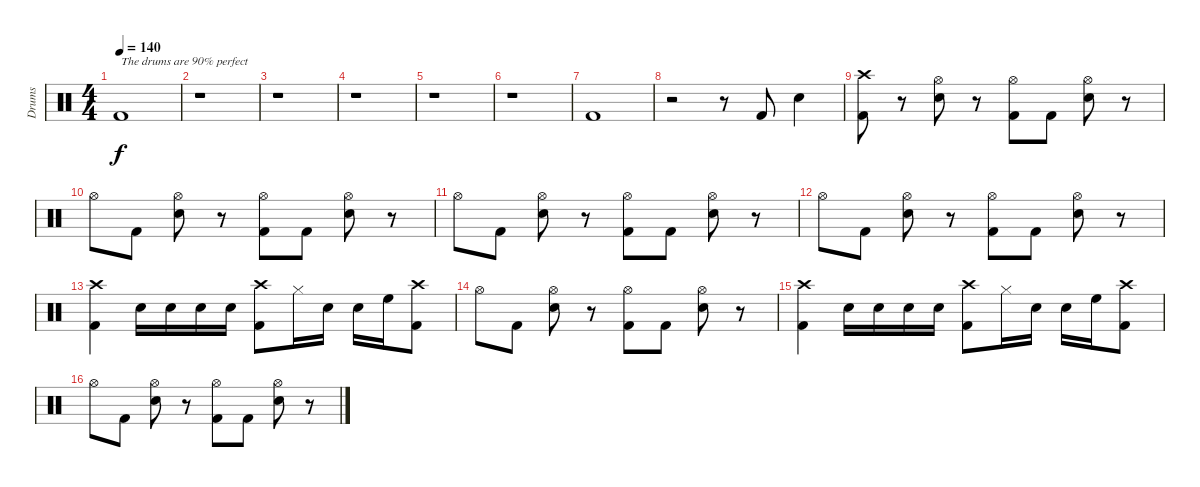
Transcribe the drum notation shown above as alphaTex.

\track ("Drums" "Drums") {instrument percussion}
\staff {score}
\articulation defaults
\ts (4 4)
\tempo 140
\clef neutral
\ks c "Kick (hit) 2".1{txt "The drums are 90% perfect" dy f}
|
r.1 |
r.1 |
r.1 |
r.1 |
r.1 |
"Kick (hit) 2".1 |
r.2 r.8 "Kick (hit) 2".8 "Electric Snare (hit)".4 |
("Crash high (hit)" "Kick (hit) 2").8 r.8 ("Hi-Hat (open)" "Electric Snare (hit)").8 r.8 ("Hi-Hat (open)" "Kick (hit) 2").8 "Kick (hit) 2".8 ("Hi-Hat (open)" "Electric Snare (hit)").8 r.8 |
"Hi-Hat (open)".8 "Kick (hit) 2".8 ("Hi-Hat (open)" "Electric Snare (hit)").8 r.8 ("Hi-Hat (open)" "Kick (hit) 2").8 "Kick (hit) 2".8 ("Hi-Hat (open)" "Electric Snare (hit)").8 r.8 |
"Hi-Hat (open)".8 "Kick (hit) 2".8 ("Hi-Hat (open)" "Electric Snare (hit)").8 r.8 ("Hi-Hat (open)" "Kick (hit) 2").8 "Kick (hit) 2".8 ("Hi-Hat (open)" "Electric Snare (hit)").8 r.8 |
"Hi-Hat (open)".8 "Kick (hit) 2".8 ("Hi-Hat (open)" "Electric Snare (hit)").8 r.8 ("Hi-Hat (open)" "Kick (hit) 2").8 "Kick (hit) 2".8 ("Hi-Hat (open)" "Electric Snare (hit)").8 r.8 |
("Crash high (hit)" "Kick (hit) 2").4 "Electric Snare (hit)".16 "Electric Snare (hit)".16 "Electric Snare (hit)".16 "Electric Snare (hit)".16 ("Crash high (hit)" "Kick (hit) 2").8 "Hi-Hat (closed)".16 "Electric Snare (hit)".16 "Electric Snare (hit)".16 "High Floor Tom (hit)".16 ("Crash high (hit)" "Kick (hit) 2").8 |
"Hi-Hat (open)".8 "Kick (hit) 2".8 ("Hi-Hat (open)" "Electric Snare (hit)").8 r.8 ("Hi-Hat (open)" "Kick (hit) 2").8 "Kick (hit) 2".8 ("Hi-Hat (open)" "Electric Snare (hit)").8 r.8 |
("Crash high (hit)" "Kick (hit) 2").4 "Electric Snare (hit)".16 "Electric Snare (hit)".16 "Electric Snare (hit)".16 "Electric Snare (hit)".16 ("Crash high (hit)" "Kick (hit) 2").8 "Hi-Hat (closed)".16 "Electric Snare (hit)".16 "Electric Snare (hit)".16 "High Floor Tom (hit)".16 ("Crash high (hit)" "Kick (hit) 2").8 |
"Hi-Hat (open)".8 "Kick (hit) 2".8 ("Hi-Hat (open)" "Electric Snare (hit)").8 r.8 ("Hi-Hat (open)" "Kick (hit) 2").8 "Kick (hit) 2".8 ("Hi-Hat (open)" "Electric Snare (hit)").8 r.8
